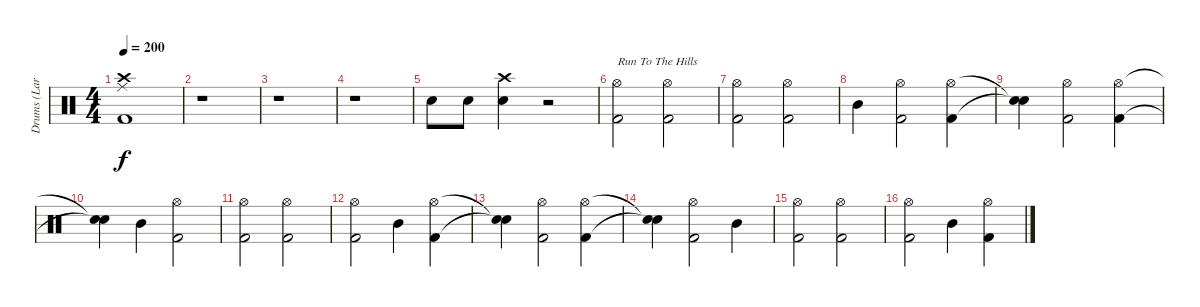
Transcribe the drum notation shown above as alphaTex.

\track ("Drums (Lars Ulrich)" "Drums (Lar") {instrument percussion}
\staff {score}
\articulation defaults
\ts (4 4)
\tempo 200
\clef neutral
\ks c
("Ride (middle)" "Crash high (hit)" "Kick (hit) 2").1{dy f} |
r.1 |
r.1 |
r.1 |
"Snare (hit) 2".8 "Snare (hit) 2".8 ("Snare (hit) 2" "Crash high (hit)").4 r.2 |
("Hi-Hat (open)" "Kick (hit) 2").2{txt "Run To The Hills"} ("Hi-Hat (open)" "Kick (hit) 2").2 |
("Hi-Hat (open)" "Kick (hit) 2").2 ("Hi-Hat (open)" "Kick (hit) 2").2 |
"Mid Tom (hit)".4 ("Hi-Hat (open)" "Kick (hit) 2").2 ("Hi-Hat (open)" "Kick (hit) 2").4 |
("Snare (hit)"{t} "Snare (hit)"{t}).4 ("Hi-Hat (open)" "Kick (hit) 2").2 ("Hi-Hat (open)" "Kick (hit) 2").4 |
("Snare (hit)"{t} "Snare (hit)"{t}).4 "Mid Tom (hit)".4 ("Hi-Hat (open)" "Kick (hit) 2").2 |
("Hi-Hat (open)" "Kick (hit) 2").2 ("Hi-Hat (open)" "Kick (hit) 2").2 |
("Hi-Hat (open)" "Kick (hit) 2").2 "Mid Tom (hit)".4 ("Hi-Hat (open)" "Kick (hit) 2").4 |
("Snare (hit)"{t} "Snare (hit)"{t}).4 ("Hi-Hat (open)" "Kick (hit) 2").2 ("Hi-Hat (open)" "Kick (hit) 2").4 |
("Snare (hit)"{t} "Snare (hit)"{t}).4 ("Hi-Hat (open)" "Kick (hit) 2").2 "Mid Tom (hit)".4 |
("Hi-Hat (open)" "Kick (hit) 2").2 ("Hi-Hat (open)" "Kick (hit) 2").2 |
("Hi-Hat (open)" "Kick (hit) 2").2 "Mid Tom (hit)".4 ("Hi-Hat (open)" "Kick (hit) 2").4
